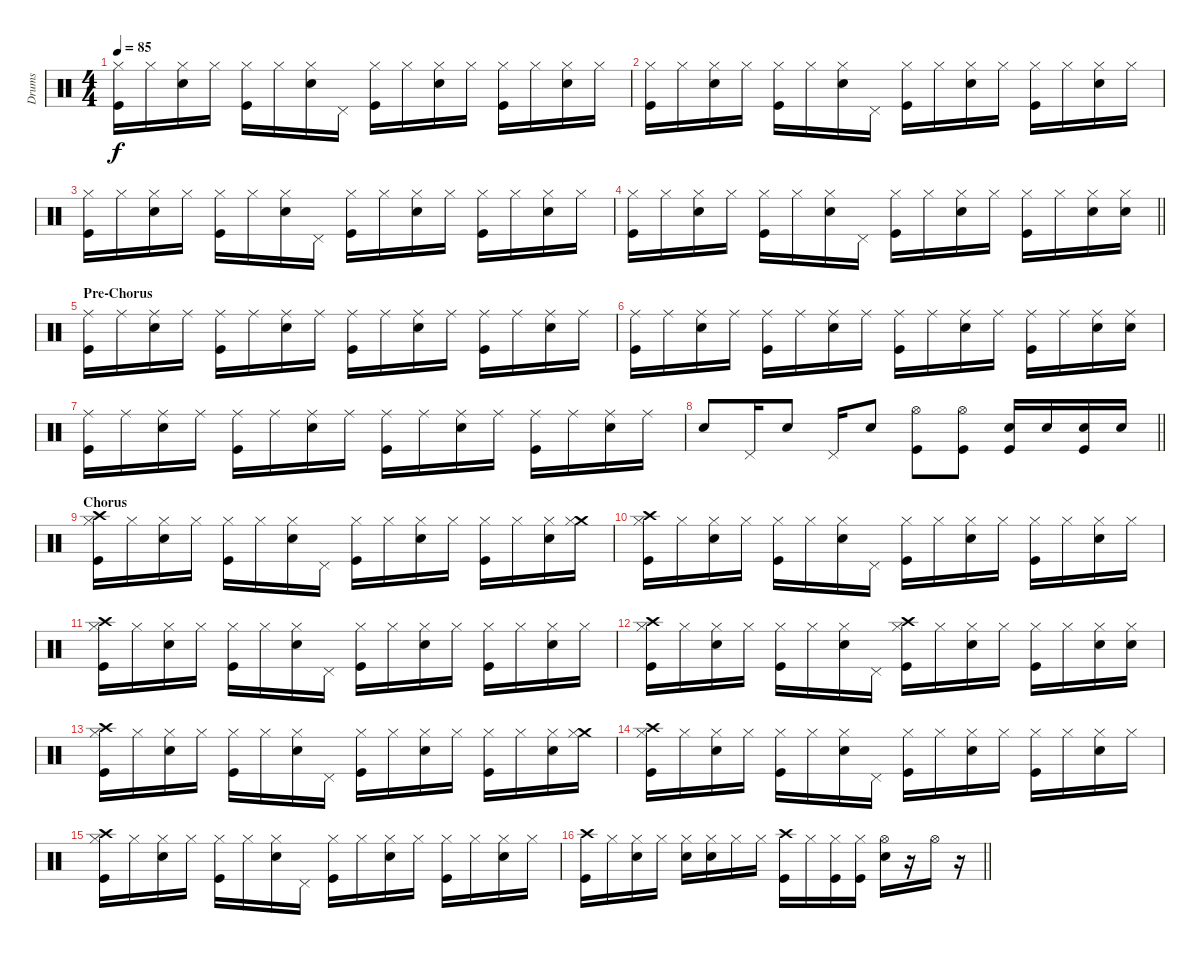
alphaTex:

\track ("Drums" "Drums") {instrument percussion}
\staff {score}
\articulation defaults
\ts (4 4)
\tempo 85
\clef neutral
\ks c
("Hi-Hat (closed)" "Kick (hit)").16{dy f} "Hi-Hat (closed)".16 ("Hi-Hat (closed)" "Electric Snare (hit)").16 "Hi-Hat (closed)".16 ("Hi-Hat (closed)" "Kick (hit)").16 "Hi-Hat (closed)".16 ("Hi-Hat (closed)" "Electric Snare (hit)").16 "Pedal Hi-Hat (hit)".16 ("Hi-Hat (closed)" "Kick (hit)").16 "Hi-Hat (closed)".16 ("Hi-Hat (closed)" "Electric Snare (hit)").16 "Hi-Hat (closed)".16 ("Hi-Hat (closed)" "Kick (hit)").16 "Hi-Hat (closed)".16 ("Hi-Hat (closed)" "Electric Snare (hit)").16 "Hi-Hat (closed)".16 |
("Hi-Hat (closed)" "Kick (hit)").16 "Hi-Hat (closed)".16 ("Hi-Hat (closed)" "Electric Snare (hit)").16 "Hi-Hat (closed)".16 ("Hi-Hat (closed)" "Kick (hit)").16 "Hi-Hat (closed)".16 ("Hi-Hat (closed)" "Electric Snare (hit)").16 "Pedal Hi-Hat (hit)".16 ("Hi-Hat (closed)" "Kick (hit)").16 "Hi-Hat (closed)".16 ("Hi-Hat (closed)" "Electric Snare (hit)").16 "Hi-Hat (closed)".16 ("Hi-Hat (closed)" "Kick (hit)").16 "Hi-Hat (closed)".16 ("Hi-Hat (closed)" "Electric Snare (hit)").16 "Hi-Hat (closed)".16 |
("Hi-Hat (closed)" "Kick (hit)").16 "Hi-Hat (closed)".16 ("Hi-Hat (closed)" "Electric Snare (hit)").16 "Hi-Hat (closed)".16 ("Hi-Hat (closed)" "Kick (hit)").16 "Hi-Hat (closed)".16 ("Hi-Hat (closed)" "Electric Snare (hit)").16 "Pedal Hi-Hat (hit)".16 ("Hi-Hat (closed)" "Kick (hit)").16 "Hi-Hat (closed)".16 ("Hi-Hat (closed)" "Electric Snare (hit)").16 "Hi-Hat (closed)".16 ("Hi-Hat (closed)" "Kick (hit)").16 "Hi-Hat (closed)".16 ("Hi-Hat (closed)" "Electric Snare (hit)").16 "Hi-Hat (closed)".16 |
\barLineRight lightlight
("Hi-Hat (closed)" "Kick (hit)").16 "Hi-Hat (closed)".16 ("Hi-Hat (closed)" "Electric Snare (hit)").16 "Hi-Hat (closed)".16 ("Hi-Hat (closed)" "Kick (hit)").16 "Hi-Hat (closed)".16 ("Hi-Hat (closed)" "Electric Snare (hit)").16 "Pedal Hi-Hat (hit)".16 ("Hi-Hat (closed)" "Kick (hit)").16 "Hi-Hat (closed)".16 ("Hi-Hat (closed)" "Electric Snare (hit)").16 "Hi-Hat (closed)".16 ("Hi-Hat (closed)" "Kick (hit)").16 "Hi-Hat (closed)".16 ("Hi-Hat (closed)" "Electric Snare (hit)").16 ("Hi-Hat (closed)" "Electric Snare (hit)").16 |
\section ("" "Pre-Chorus")
("Ride (middle)" "Kick (hit)").16 "Ride (middle)".16 ("Ride (middle)" "Electric Snare (hit)").16 "Ride (middle)".16 ("Ride (middle)" "Kick (hit)").16 "Ride (middle)".16 ("Ride (middle)" "Electric Snare (hit)").16 "Ride (middle)".16 ("Ride (middle)" "Kick (hit)").16 "Ride (middle)".16 ("Ride (middle)" "Electric Snare (hit)").16 "Ride (middle)".16 ("Ride (middle)" "Kick (hit)").16 "Ride (middle)".16 ("Ride (middle)" "Electric Snare (hit)").16 "Ride (middle)".16 |
("Ride (middle)" "Kick (hit)").16 "Ride (middle)".16 ("Ride (middle)" "Electric Snare (hit)").16 "Ride (middle)".16 ("Ride (middle)" "Kick (hit)").16 "Ride (middle)".16 ("Ride (middle)" "Electric Snare (hit)").16 "Ride (middle)".16 ("Ride (middle)" "Kick (hit)").16 "Ride (middle)".16 ("Ride (middle)" "Electric Snare (hit)").16 "Ride (middle)".16 ("Ride (middle)" "Kick (hit)").16 "Ride (middle)".16 ("Ride (middle)" "Electric Snare (hit)").16 ("Ride (middle)" "Electric Snare (hit)").16 |
("Ride (middle)" "Kick (hit)").16 "Ride (middle)".16 ("Ride (middle)" "Electric Snare (hit)").16 "Ride (middle)".16 ("Ride (middle)" "Kick (hit)").16 "Ride (middle)".16 ("Ride (middle)" "Electric Snare (hit)").16 "Ride (middle)".16 ("Ride (middle)" "Kick (hit)").16 "Ride (middle)".16 ("Ride (middle)" "Electric Snare (hit)").16 "Ride (middle)".16 ("Ride (middle)" "Kick (hit)").16 "Ride (middle)".16 ("Ride (middle)" "Electric Snare (hit)").16 "Ride (middle)".16 |
\barLineRight lightlight "Electric Snare (hit)".8 "Pedal Hi-Hat (hit)".16 "Electric Snare (hit)".8 "Pedal Hi-Hat (hit)".16 "Electric Snare (hit)".8
("Hi-Hat (open)" "Kick (hit)").8 ("Hi-Hat (open)" "Kick (hit)").8 ("Electric Snare (hit)" "Kick (hit)").16 "Electric Snare (hit)".16 ("Electric Snare (hit)" "Kick (hit)").16 "Electric Snare (hit)".16 |
\section ("" "Chorus")
("Crash high (hit)" "Hi-Hat (closed)" "Kick (hit)").16 "Hi-Hat (closed)".16 ("Hi-Hat (closed)" "Electric Snare (hit)").16 "Hi-Hat (closed)".16 ("Hi-Hat (closed)" "Kick (hit)").16 "Hi-Hat (closed)".16 ("Hi-Hat (closed)" "Electric Snare (hit)").16 "Pedal Hi-Hat (hit)".16 ("Hi-Hat (closed)" "Kick (hit)").16 "Hi-Hat (closed)".16 ("Hi-Hat (closed)" "Electric Snare (hit)").16 "Hi-Hat (closed)".16 ("Hi-Hat (closed)" "Kick (hit)").16 "Hi-Hat (closed)".16 ("Hi-Hat (closed)" "Electric Snare (hit)").16 ("Crash medium (hit)" "Hi-Hat (closed)").16 |
("Crash high (hit)" "Hi-Hat (closed)" "Kick (hit)").16 "Hi-Hat (closed)".16 ("Hi-Hat (closed)" "Electric Snare (hit)").16 "Hi-Hat (closed)".16 ("Hi-Hat (closed)" "Kick (hit)").16 "Hi-Hat (closed)".16 ("Hi-Hat (closed)" "Electric Snare (hit)").16 "Pedal Hi-Hat (hit)".16 ("Hi-Hat (closed)" "Kick (hit)").16 "Hi-Hat (closed)".16 ("Hi-Hat (closed)" "Electric Snare (hit)").16 "Hi-Hat (closed)".16 ("Hi-Hat (closed)" "Kick (hit)").16 "Hi-Hat (closed)".16 ("Hi-Hat (closed)" "Electric Snare (hit)").16 "Hi-Hat (closed)".16 |
("Crash high (hit)" "Hi-Hat (closed)" "Kick (hit)").16 "Hi-Hat (closed)".16 ("Hi-Hat (closed)" "Electric Snare (hit)").16 "Hi-Hat (closed)".16 ("Hi-Hat (closed)" "Kick (hit)").16 "Hi-Hat (closed)".16 ("Hi-Hat (closed)" "Electric Snare (hit)").16 "Pedal Hi-Hat (hit)".16 ("Hi-Hat (closed)" "Kick (hit)").16 "Hi-Hat (closed)".16 ("Hi-Hat (closed)" "Electric Snare (hit)").16 "Hi-Hat (closed)".16 ("Hi-Hat (closed)" "Kick (hit)").16 "Hi-Hat (closed)".16 ("Hi-Hat (closed)" "Electric Snare (hit)").16 "Hi-Hat (closed)".16 |
("Crash high (hit)" "Hi-Hat (closed)" "Kick (hit)").16 "Hi-Hat (closed)".16 ("Hi-Hat (closed)" "Electric Snare (hit)").16 "Hi-Hat (closed)".16 ("Hi-Hat (closed)" "Kick (hit)").16 "Hi-Hat (closed)".16 ("Hi-Hat (closed)" "Electric Snare (hit)").16 "Pedal Hi-Hat (hit)".16 ("Crash high (hit)" "Hi-Hat (closed)" "Kick (hit)").16 "Hi-Hat (closed)".16 ("Hi-Hat (closed)" "Electric Snare (hit)").16 "Hi-Hat (closed)".16 ("Hi-Hat (closed)" "Kick (hit)").16 "Hi-Hat (closed)".16 ("Hi-Hat (closed)" "Electric Snare (hit)").16 ("Hi-Hat (closed)" "Electric Snare (hit)").16 |
("Crash high (hit)" "Hi-Hat (closed)" "Kick (hit)").16 "Hi-Hat (closed)".16 ("Hi-Hat (closed)" "Electric Snare (hit)").16 "Hi-Hat (closed)".16 ("Hi-Hat (closed)" "Kick (hit)").16 "Hi-Hat (closed)".16 ("Hi-Hat (closed)" "Electric Snare (hit)").16 "Pedal Hi-Hat (hit)".16 ("Hi-Hat (closed)" "Kick (hit)").16 "Hi-Hat (closed)".16 ("Hi-Hat (closed)" "Electric Snare (hit)").16 "Hi-Hat (closed)".16 ("Hi-Hat (closed)" "Kick (hit)").16 "Hi-Hat (closed)".16 ("Hi-Hat (closed)" "Electric Snare (hit)").16 ("Crash medium (hit)" "Hi-Hat (closed)").16 |
("Crash high (hit)" "Hi-Hat (closed)" "Kick (hit)").16 "Hi-Hat (closed)".16 ("Hi-Hat (closed)" "Electric Snare (hit)").16 "Hi-Hat (closed)".16 ("Hi-Hat (closed)" "Kick (hit)").16 "Hi-Hat (closed)".16 ("Hi-Hat (closed)" "Electric Snare (hit)").16 "Pedal Hi-Hat (hit)".16 ("Hi-Hat (closed)" "Kick (hit)").16 "Hi-Hat (closed)".16 ("Hi-Hat (closed)" "Electric Snare (hit)").16 "Hi-Hat (closed)".16 ("Hi-Hat (closed)" "Kick (hit)").16 "Hi-Hat (closed)".16 ("Hi-Hat (closed)" "Electric Snare (hit)").16 "Hi-Hat (closed)".16 |
("Crash high (hit)" "Hi-Hat (closed)" "Kick (hit)").16 "Hi-Hat (closed)".16 ("Hi-Hat (closed)" "Electric Snare (hit)").16 "Hi-Hat (closed)".16 ("Hi-Hat (closed)" "Kick (hit)").16 "Hi-Hat (closed)".16 ("Hi-Hat (closed)" "Electric Snare (hit)").16 "Pedal Hi-Hat (hit)".16 ("Hi-Hat (closed)" "Kick (hit)").16 "Hi-Hat (closed)".16 ("Hi-Hat (closed)" "Electric Snare (hit)").16 "Hi-Hat (closed)".16 ("Hi-Hat (closed)" "Kick (hit)").16 "Hi-Hat (closed)".16 ("Hi-Hat (closed)" "Electric Snare (hit)").16 "Hi-Hat (closed)".16 |
\barLineRight lightlight
("Crash high (hit)" "Kick (hit)").16 "Hi-Hat (closed)".16 ("Hi-Hat (closed)" "Electric Snare (hit)").16 "Hi-Hat (closed)".16 ("Hi-Hat (closed)" "Electric Snare (hit)").16 ("Hi-Hat (closed)" "Electric Snare (hit)").16 "Hi-Hat (closed)".16 "Hi-Hat (closed)".16 ("Crash high (hit)" "Kick (hit)").16 "Hi-Hat (closed)".16 ("Hi-Hat (closed)" "Kick (hit)").16 ("Hi-Hat (closed)" "Kick (hit)").16 ("Hi-Hat (open)" "Electric Snare (hit)").16 r.16 "Hi-Hat (open)".16 r.16
